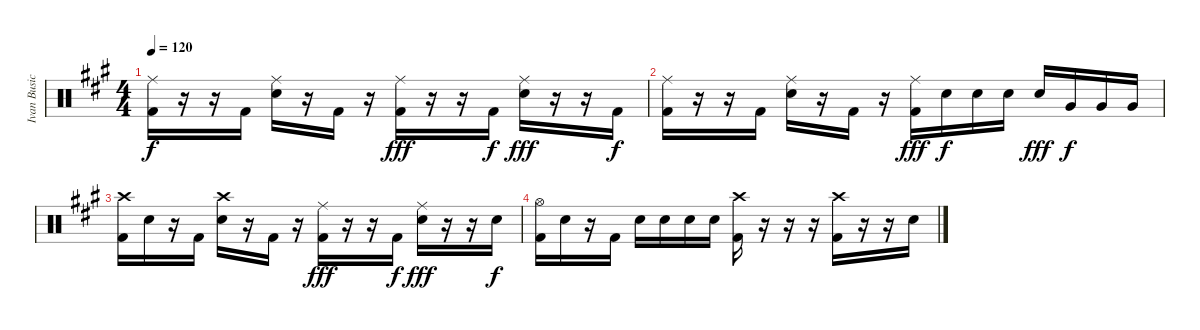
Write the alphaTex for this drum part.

\track ("Ivan Busic" "Ivan Busic") {instrument percussion}
\staff {score}
\articulation defaults
\ts (4 4)
\tempo 120
\clef neutral
\ks a
("Ride (middle)" "Kick (hit) 2").16{dy f} r.16 r.16 "Kick (hit) 2".16 ("Ride (middle)" "Electric Snare (hit)").16 r.16 "Kick (hit) 2".16 r.16 ("Ride (middle)" "Kick (hit) 2").16{dy fff} r.16 r.16 "Kick (hit) 2".16{dy f} ("Ride (middle)" "Electric Snare (hit)").16{dy fff} r.16 r.16 "Kick (hit) 2".16{dy f} |
("Ride (middle)" "Kick (hit) 2").16 r.16 r.16 "Kick (hit) 2".16 ("Ride (middle)" "Electric Snare (hit)").16 r.16 "Kick (hit) 2".16 r.16 ("Ride (middle)" "Kick (hit) 2").16{dy fff} "Electric Snare (hit)".16{dy f} "Electric Snare (hit)".16 "Electric Snare (hit)".16 "Electric Snare (hit)".16{dy fff} "Very Low Tom (hit)".16{dy f} "Very Low Tom (hit)".16 "Very Low Tom (hit)".16 |
("Crash high (hit)" "Kick (hit) 2").16 "Electric Snare (hit)".16 r.16 "Kick (hit) 2".16 ("Crash high (hit)" "Electric Snare (hit)").16 r.16 "Kick (hit) 2".16 r.16 ("Ride (middle)" "Kick (hit) 2").16{dy fff} r.16 r.16 "Kick (hit) 2".16{dy f} ("Ride (middle)" "Electric Snare (hit)").16{dy fff} r.16 r.16 "Snare (hit)".16{dy f} |
("Hi-Hat (open)" "Kick (hit) 2").16 "Electric Snare (hit)".16 r.16 "Kick (hit) 2".16 "Electric Snare (hit)".16 "Electric Snare (hit)".16 "Electric Snare (hit)".16 "Electric Snare (hit)".16 ("Crash high (hit)" "Kick (hit) 2").16 r.16 r.16 r.16 ("Crash high (hit)" "Kick (hit) 2").16 r.16 r.16 "Snare (hit)".16
